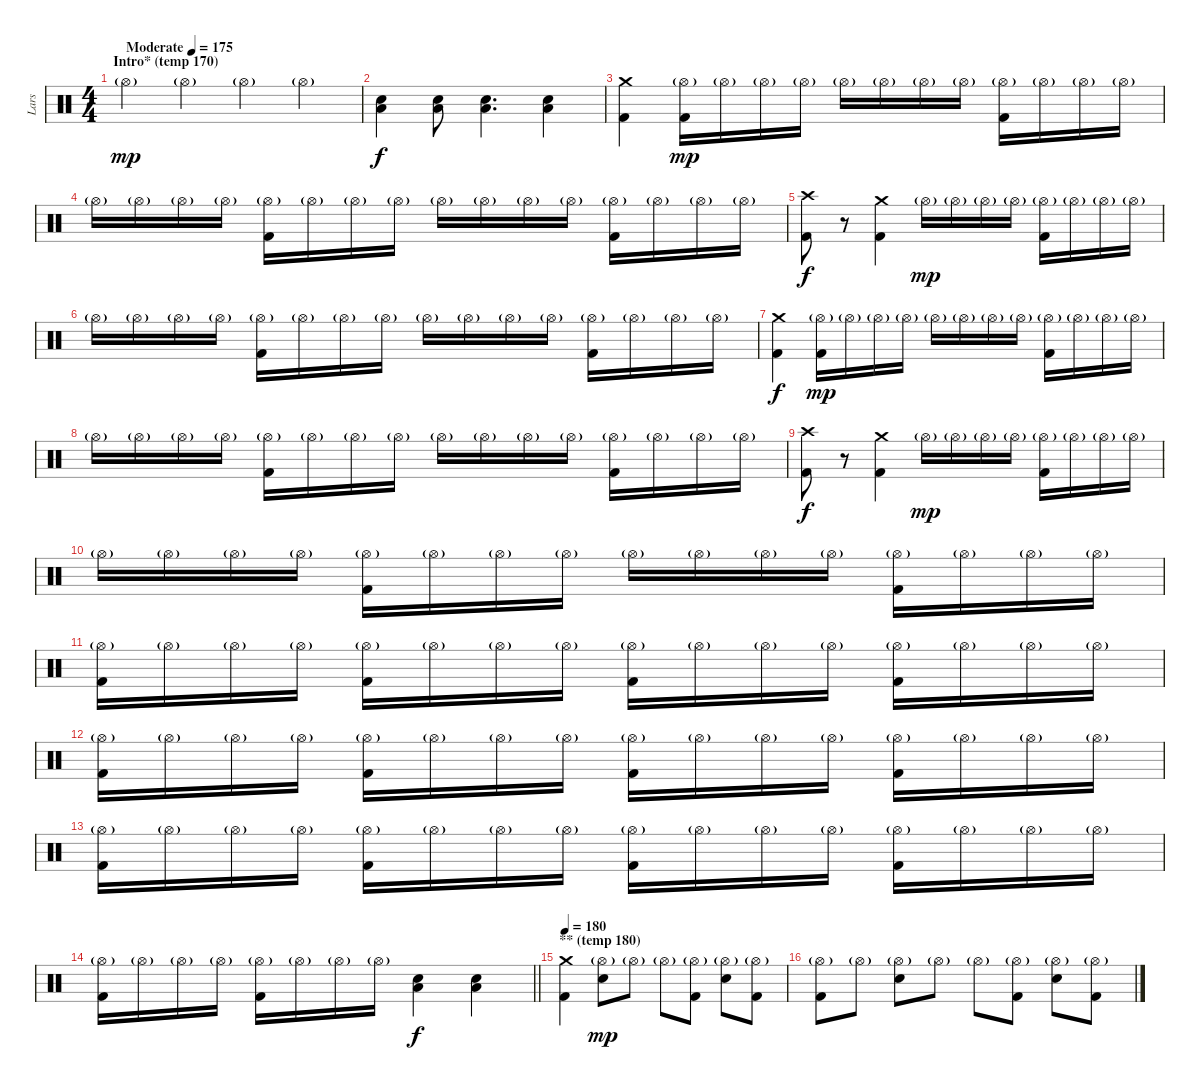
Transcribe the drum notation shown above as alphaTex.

\track ("Lars" "Lars") {instrument percussion}
\staff {score}
\articulation defaults
\ts (4 4)
\section ("" "Intro* (temp 170)")
\tempo (175 "Moderate")
\tempo 170
\tempo (175 "Moderate")
\clef neutral
\ks c "Hi-Hat (open)"{g}.4{dy mp} "Hi-Hat (open)"{g}.4 "Hi-Hat (open)"{g}.4 "Hi-Hat (open)"{g}.4
|
("Low Floor Tom (hit)" "Electric Snare (hit)").4{dy f} ("Low Floor Tom (hit)" "Electric Snare (hit)").8 ("Low Floor Tom (hit)" "Electric Snare (hit)").4{d} ("Low Floor Tom (hit)" "Electric Snare (hit)").4 |
("Crash medium (hit)" "Kick (hit) 2").4 ("Hi-Hat (open)"{g} "Kick (hit) 2").16{dy mp} "Hi-Hat (open)"{g}.16 "Hi-Hat (open)"{g}.16 "Hi-Hat (open)"{g}.16 "Hi-Hat (open)"{g}.16 "Hi-Hat (open)"{g}.16 "Hi-Hat (open)"{g}.16 "Hi-Hat (open)"{g}.16 ("Hi-Hat (open)"{g} "Kick (hit) 2").16 "Hi-Hat (open)"{g}.16 "Hi-Hat (open)"{g}.16 "Hi-Hat (open)"{g}.16 |
"Hi-Hat (open)"{g}.16 "Hi-Hat (open)"{g}.16 "Hi-Hat (open)"{g}.16 "Hi-Hat (open)"{g}.16 ("Hi-Hat (open)"{g} "Kick (hit) 2").16 "Hi-Hat (open)"{g}.16 "Hi-Hat (open)"{g}.16 "Hi-Hat (open)"{g}.16 "Hi-Hat (open)"{g}.16 "Hi-Hat (open)"{g}.16 "Hi-Hat (open)"{g}.16 "Hi-Hat (open)"{g}.16 ("Hi-Hat (open)"{g} "Kick (hit) 2").16 "Hi-Hat (open)"{g}.16 "Hi-Hat (open)"{g}.16 "Hi-Hat (open)"{g}.16 |
("Crash high (hit)" "Kick (hit) 2").8{dy f} r.8{volume 6} ("Crash medium (hit)" "Kick (hit) 2").4{volume 15} "Hi-Hat (open)"{g}.16{dy mp} "Hi-Hat (open)"{g}.16 "Hi-Hat (open)"{g}.16 "Hi-Hat (open)"{g}.16 ("Hi-Hat (open)"{g} "Kick (hit) 2").16 "Hi-Hat (open)"{g}.16 "Hi-Hat (open)"{g}.16 "Hi-Hat (open)"{g}.16 |
"Hi-Hat (open)"{g}.16 "Hi-Hat (open)"{g}.16 "Hi-Hat (open)"{g}.16 "Hi-Hat (open)"{g}.16 ("Hi-Hat (open)"{g} "Kick (hit) 2").16 "Hi-Hat (open)"{g}.16 "Hi-Hat (open)"{g}.16 "Hi-Hat (open)"{g}.16 "Hi-Hat (open)"{g}.16 "Hi-Hat (open)"{g}.16 "Hi-Hat (open)"{g}.16 "Hi-Hat (open)"{g}.16 ("Hi-Hat (open)"{g} "Kick (hit) 2").16 "Hi-Hat (open)"{g}.16 "Hi-Hat (open)"{g}.16 "Hi-Hat (open)"{g}.16 |
("Crash medium (hit)" "Kick (hit) 2").4{dy f} ("Hi-Hat (open)"{g} "Kick (hit) 2").16{dy mp} "Hi-Hat (open)"{g}.16 "Hi-Hat (open)"{g}.16 "Hi-Hat (open)"{g}.16 "Hi-Hat (open)"{g}.16 "Hi-Hat (open)"{g}.16 "Hi-Hat (open)"{g}.16 "Hi-Hat (open)"{g}.16 ("Hi-Hat (open)"{g} "Kick (hit) 2").16 "Hi-Hat (open)"{g}.16 "Hi-Hat (open)"{g}.16 "Hi-Hat (open)"{g}.16 |
"Hi-Hat (open)"{g}.16 "Hi-Hat (open)"{g}.16 "Hi-Hat (open)"{g}.16 "Hi-Hat (open)"{g}.16 ("Hi-Hat (open)"{g} "Kick (hit) 2").16 "Hi-Hat (open)"{g}.16 "Hi-Hat (open)"{g}.16 "Hi-Hat (open)"{g}.16 "Hi-Hat (open)"{g}.16 "Hi-Hat (open)"{g}.16 "Hi-Hat (open)"{g}.16 "Hi-Hat (open)"{g}.16 ("Hi-Hat (open)"{g} "Kick (hit) 2").16 "Hi-Hat (open)"{g}.16 "Hi-Hat (open)"{g}.16 "Hi-Hat (open)"{g}.16 |
("Crash high (hit)" "Kick (hit) 2").8{dy f} r.8{volume 6} ("Crash medium (hit)" "Kick (hit) 2").4{volume 15} "Hi-Hat (open)"{g}.16{dy mp} "Hi-Hat (open)"{g}.16 "Hi-Hat (open)"{g}.16 "Hi-Hat (open)"{g}.16 ("Hi-Hat (open)"{g} "Kick (hit) 2").16 "Hi-Hat (open)"{g}.16 "Hi-Hat (open)"{g}.16 "Hi-Hat (open)"{g}.16 |
"Hi-Hat (open)"{g}.16 "Hi-Hat (open)"{g}.16 "Hi-Hat (open)"{g}.16 "Hi-Hat (open)"{g}.16 ("Hi-Hat (open)"{g} "Kick (hit) 2").16 "Hi-Hat (open)"{g}.16 "Hi-Hat (open)"{g}.16 "Hi-Hat (open)"{g}.16 "Hi-Hat (open)"{g}.16 "Hi-Hat (open)"{g}.16 "Hi-Hat (open)"{g}.16 "Hi-Hat (open)"{g}.16 ("Hi-Hat (open)"{g} "Kick (hit) 2").16 "Hi-Hat (open)"{g}.16 "Hi-Hat (open)"{g}.16 "Hi-Hat (open)"{g}.16 |
("Hi-Hat (open)"{g} "Kick (hit) 2").16 "Hi-Hat (open)"{g}.16 "Hi-Hat (open)"{g}.16 "Hi-Hat (open)"{g}.16 ("Hi-Hat (open)"{g} "Kick (hit) 2").16 "Hi-Hat (open)"{g}.16 "Hi-Hat (open)"{g}.16 "Hi-Hat (open)"{g}.16 ("Hi-Hat (open)"{g} "Kick (hit) 2").16 "Hi-Hat (open)"{g}.16 "Hi-Hat (open)"{g}.16 "Hi-Hat (open)"{g}.16 ("Hi-Hat (open)"{g} "Kick (hit) 2").16 "Hi-Hat (open)"{g}.16 "Hi-Hat (open)"{g}.16 "Hi-Hat (open)"{g}.16 |
("Hi-Hat (open)"{g} "Kick (hit) 2").16 "Hi-Hat (open)"{g}.16 "Hi-Hat (open)"{g}.16 "Hi-Hat (open)"{g}.16 ("Hi-Hat (open)"{g} "Kick (hit) 2").16 "Hi-Hat (open)"{g}.16 "Hi-Hat (open)"{g}.16 "Hi-Hat (open)"{g}.16 ("Hi-Hat (open)"{g} "Kick (hit) 2").16 "Hi-Hat (open)"{g}.16 "Hi-Hat (open)"{g}.16 "Hi-Hat (open)"{g}.16 ("Hi-Hat (open)"{g} "Kick (hit) 2").16 "Hi-Hat (open)"{g}.16 "Hi-Hat (open)"{g}.16 "Hi-Hat (open)"{g}.16 |
("Hi-Hat (open)"{g} "Kick (hit) 2").16 "Hi-Hat (open)"{g}.16 "Hi-Hat (open)"{g}.16 "Hi-Hat (open)"{g}.16 ("Hi-Hat (open)"{g} "Kick (hit) 2").16 "Hi-Hat (open)"{g}.16 "Hi-Hat (open)"{g}.16 "Hi-Hat (open)"{g}.16 ("Hi-Hat (open)"{g} "Kick (hit) 2").16 "Hi-Hat (open)"{g}.16 "Hi-Hat (open)"{g}.16 "Hi-Hat (open)"{g}.16 ("Hi-Hat (open)"{g} "Kick (hit) 2").16 "Hi-Hat (open)"{g}.16 "Hi-Hat (open)"{g}.16 "Hi-Hat (open)"{g}.16 |
\barLineRight lightlight
("Hi-Hat (open)"{g} "Kick (hit) 2").16 "Hi-Hat (open)"{g}.16 "Hi-Hat (open)"{g}.16 "Hi-Hat (open)"{g}.16 ("Hi-Hat (open)"{g} "Kick (hit) 2").16 "Hi-Hat (open)"{g}.16 "Hi-Hat (open)"{g}.16 "Hi-Hat (open)"{g}.16 ("Low Floor Tom (hit)" "Electric Snare (hit)").4{dy f} ("Low Floor Tom (hit)" "Electric Snare (hit)").4 |
\section ("" "** (temp 180)")
\tempo 180
("Crash medium (hit)" "Kick (hit) 2").4 ("Hi-Hat (open)"{g} "Electric Snare (hit)").8{dy mp} "Hi-Hat (open)"{g}.8 "Hi-Hat (open)"{g}.8 ("Hi-Hat (open)"{g} "Kick (hit) 2").8 ("Hi-Hat (open)"{g} "Electric Snare (hit)").8 ("Hi-Hat (open)"{g} "Kick (hit) 2").8 |
("Hi-Hat (open)"{g} "Kick (hit) 2").8 "Hi-Hat (open)"{g}.8 ("Hi-Hat (open)"{g} "Electric Snare (hit)").8 "Hi-Hat (open)"{g}.8 "Hi-Hat (open)"{g}.8 ("Hi-Hat (open)"{g} "Kick (hit) 2").8 ("Hi-Hat (open)"{g} "Electric Snare (hit)").8 ("Hi-Hat (open)"{g} "Kick (hit) 2").8
